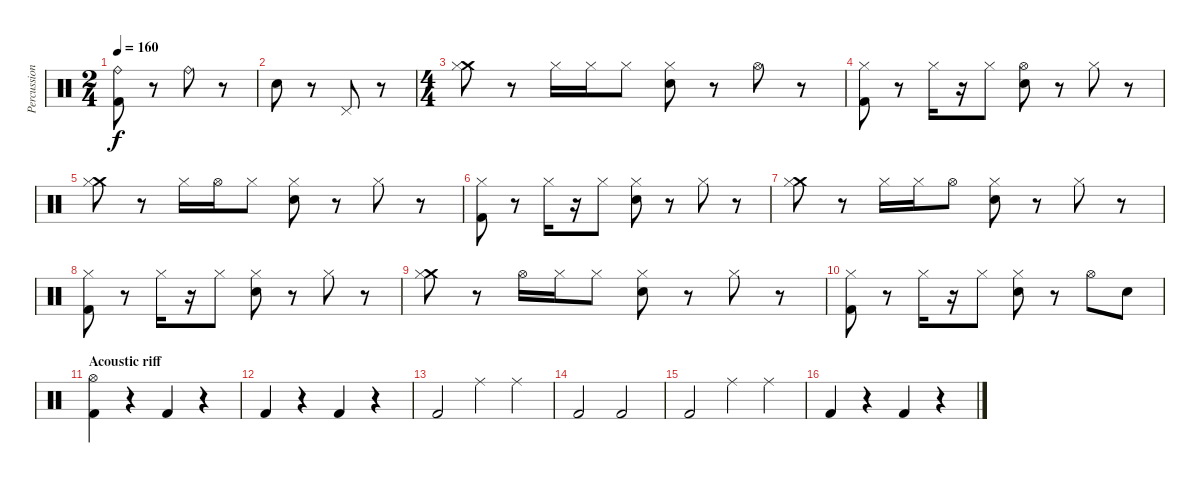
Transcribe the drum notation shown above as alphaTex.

\track ("Percussion" "Percussion") {instrument percussion}
\staff {score}
\articulation defaults
\ts (2 4)
\tempo 160
\clef neutral
\ks c
("Ride (bell)" "Kick (hit) 2").8{dy f} r.8 "Ride (bell)".8 r.8 |
"Electric Snare (hit)".8 r.8 "Pedal Hi-Hat (hit)".8 r.8 |
\ts (4 4)
("Crash medium (hit)" "Hi-Hat (closed)").8 r.8 "Hi-Hat (closed)".16 "Hi-Hat (closed)".16 "Hi-Hat (closed)".8 ("Electric Snare (hit)" "Hi-Hat (closed)").8 r.8 "Hi-Hat (open)".8 r.8 |
("Hi-Hat (closed)" "Kick (hit) 2").8 r.8 "Hi-Hat (closed)".16 r.16 "Hi-Hat (closed)".8 ("Electric Snare (hit)" "Hi-Hat (open)").8 r.8 "Hi-Hat (closed)".8 r.8 |
("Crash medium (hit)" "Hi-Hat (closed)").8 r.8 "Hi-Hat (closed)".16 "Hi-Hat (open)".16 "Hi-Hat (closed)".8 ("Electric Snare (hit)" "Hi-Hat (closed)").8 r.8 "Hi-Hat (closed)".8 r.8 |
("Hi-Hat (closed)" "Kick (hit) 2").8 r.8 "Hi-Hat (closed)".16 r.16 "Hi-Hat (closed)".8 ("Electric Snare (hit)" "Hi-Hat (closed)").8 r.8 "Hi-Hat (closed)".8 r.8 |
("Crash medium (hit)" "Hi-Hat (closed)").8 r.8 "Hi-Hat (closed)".16 "Hi-Hat (closed)".16 "Hi-Hat (open)".8 ("Electric Snare (hit)" "Hi-Hat (closed)").8 r.8 "Hi-Hat (closed)".8 r.8 |
("Hi-Hat (closed)" "Kick (hit) 2").8 r.8 "Hi-Hat (closed)".16 r.16 "Hi-Hat (closed)".8 ("Electric Snare (hit)" "Hi-Hat (closed)").8 r.8 "Hi-Hat (closed)".8 r.8 |
("Crash medium (hit)" "Hi-Hat (closed)").8 r.8 "Hi-Hat (open)".16 "Hi-Hat (closed)".16 "Hi-Hat (closed)".8 ("Electric Snare (hit)" "Hi-Hat (closed)").8 r.8 "Hi-Hat (closed)".8 r.8 |
("Hi-Hat (closed)" "Kick (hit) 2").8 r.8 "Hi-Hat (closed)".16 r.16 "Hi-Hat (closed)".8 ("Electric Snare (hit)" "Hi-Hat (closed)").8 r.8 "Hi-Hat (open)".8 "Electric Snare (hit)".8 |
\section ("" "Acoustic riff")
("Hi-Hat (open)" "Kick (hit) 2").4 r.4 "Kick (hit) 2".4 r.4 |
"Kick (hit) 2".4 r.4 "Kick (hit) 2".4 r.4 |
"Kick (hit) 2".2 "Ride (middle)".4 "Ride (middle)".4 |
"Kick (hit) 2".2 "Kick (hit) 2".2 |
"Kick (hit) 2".2 "Ride (middle)".4 "Ride (middle)".4 |
"Kick (hit) 2".4 r.4 "Kick (hit) 2".4 r.4
